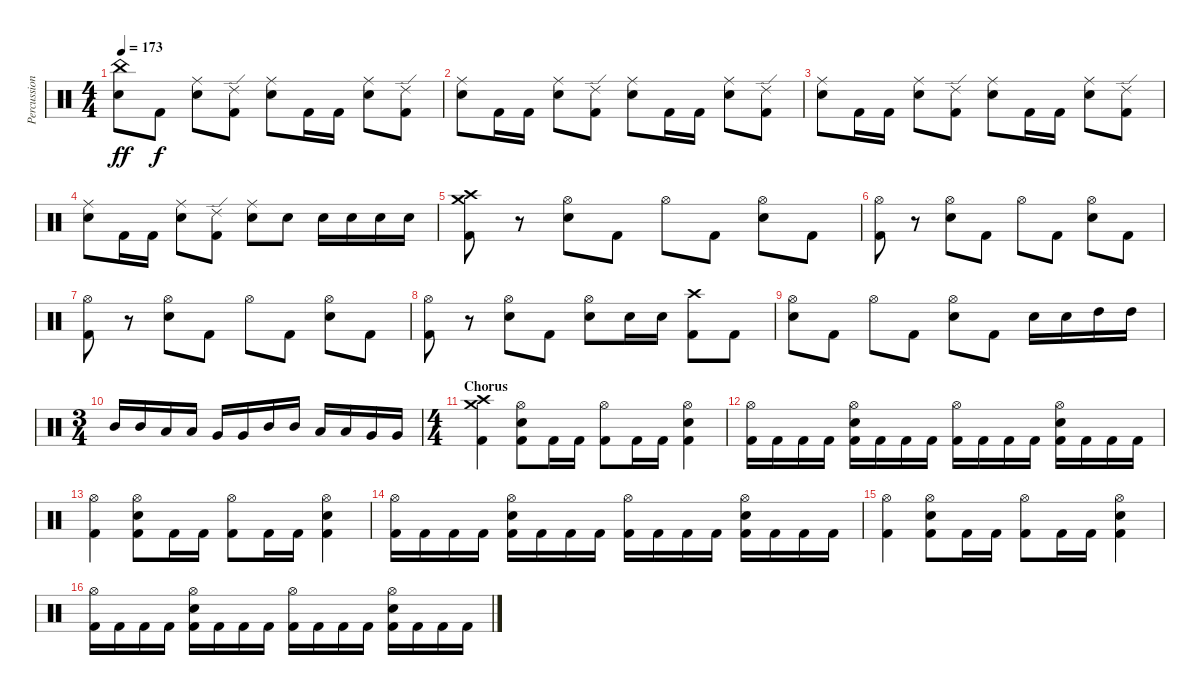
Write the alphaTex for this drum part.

\track ("Percussions" "Percussion") {instrument percussion}
\staff {score}
\articulation defaults
\ts (4 4)
\tempo 173
\clef neutral
\ks c
("China (hit)" "Electric Snare (hit)").8{dy ff} "Kick (hit) 2".8{dy f} ("Ride (middle)" "Electric Snare (hit)").8 ("Ride (edge) 2" "Kick (hit) 2").8 ("Ride (middle)" "Electric Snare (hit)").8 "Kick (hit) 2".16 "Kick (hit) 2".16 ("Ride (middle)" "Electric Snare (hit)").8 ("Ride (edge) 2" "Kick (hit) 2").8 |
("Ride (middle)" "Electric Snare (hit)").8 "Kick (hit) 2".16 "Kick (hit) 2".16 ("Ride (middle)" "Electric Snare (hit)").8 ("Ride (edge) 2" "Kick (hit) 2").8 ("Ride (middle)" "Electric Snare (hit)").8 "Kick (hit) 2".16 "Kick (hit) 2".16 ("Ride (middle)" "Electric Snare (hit)").8 ("Ride (edge) 2" "Kick (hit) 2").8 |
("Ride (middle)" "Electric Snare (hit)").8 "Kick (hit) 2".16 "Kick (hit) 2".16 ("Ride (middle)" "Electric Snare (hit)").8 ("Ride (edge) 2" "Kick (hit) 2").8 ("Ride (middle)" "Electric Snare (hit)").8 "Kick (hit) 2".16 "Kick (hit) 2".16 ("Ride (middle)" "Electric Snare (hit)").8 ("Ride (edge) 2" "Kick (hit) 2").8 |
("Ride (middle)" "Electric Snare (hit)").8 "Kick (hit) 2".16 "Kick (hit) 2".16 ("Ride (middle)" "Electric Snare (hit)").8 ("Ride (edge) 2" "Kick (hit) 2").8 ("Ride (middle)" "Electric Snare (hit)").8 "Electric Snare (hit)".8 "Electric Snare (hit)".16 "Electric Snare (hit)".16 "Electric Snare (hit)".16 "Electric Snare (hit)".16 |
("Crash high (hit)" "Crash medium (hit)" "Kick (hit) 2").8 r.8 ("Hi-Hat (open)" "Electric Snare (hit)").8 "Kick (hit) 2".8 "Hi-Hat (open)".8 "Kick (hit) 2".8 ("Hi-Hat (open)" "Electric Snare (hit)").8 "Kick (hit) 2".8 |
("Hi-Hat (open)" "Kick (hit) 2").8 r.8 ("Hi-Hat (open)" "Electric Snare (hit)").8 "Kick (hit) 2".8 "Hi-Hat (open)".8 "Kick (hit) 2".8 ("Hi-Hat (open)" "Electric Snare (hit)").8 "Kick (hit) 2".8 |
("Hi-Hat (open)" "Kick (hit) 2").8 r.8 ("Hi-Hat (open)" "Electric Snare (hit)").8 "Kick (hit) 2".8 "Hi-Hat (open)".8 "Kick (hit) 2".8 ("Hi-Hat (open)" "Electric Snare (hit)").8 "Kick (hit) 2".8 |
("Hi-Hat (open)" "Kick (hit) 2").8 r.8 ("Hi-Hat (open)" "Electric Snare (hit)").8 "Kick (hit) 2".8 ("Hi-Hat (open)" "Electric Snare (hit)").8 "Electric Snare (hit)".16 "Electric Snare (hit)".16 ("Crash high (hit)" "Kick (hit) 2").8 "Kick (hit) 2".8 |
("Hi-Hat (open)" "Electric Snare (hit)").8 "Kick (hit) 2".8 "Hi-Hat (open)".8 "Kick (hit) 2".8 ("Hi-Hat (open)" "Electric Snare (hit)").8 "Kick (hit) 2".8 "Electric Snare (hit)".16 "Electric Snare (hit)".16 "High Tom (hit)".16 "High Tom (hit)".16 |
\ts (3 4)
"Mid Tom (hit)".16 "Mid Tom (hit)".16 "Low Tom (hit)".16 "Low Tom (hit)".16 "Very Low Tom (hit)".16 "Very Low Tom (hit)".16 "Mid Tom (hit)".16 "Mid Tom (hit)".16 "Low Tom (hit)".16 "Low Tom (hit)".16 "Very Low Tom (hit)".16 "Very Low Tom (hit)".16 |
\ts (4 4)
\section ("" "Chorus")
("Crash high (hit)" "Crash medium (hit)" "Kick (hit) 2").4 ("Hi-Hat (open)" "Electric Snare (hit)" "Kick (hit) 2").8 "Kick (hit) 2".16 "Kick (hit) 2".16 ("Hi-Hat (open)" "Kick (hit) 2").8 "Kick (hit) 2".16 "Kick (hit) 2".16 ("Hi-Hat (open)" "Electric Snare (hit)" "Kick (hit) 2").4 |
("Hi-Hat (open)" "Kick (hit) 2").16 "Kick (hit) 2".16 "Kick (hit) 2".16 "Kick (hit) 2".16 ("Hi-Hat (open)" "Electric Snare (hit)" "Kick (hit) 2").16 "Kick (hit) 2".16 "Kick (hit) 2".16 "Kick (hit) 2".16 ("Hi-Hat (open)" "Kick (hit) 2").16 "Kick (hit) 2".16 "Kick (hit) 2".16 "Kick (hit) 2".16 ("Hi-Hat (open)" "Electric Snare (hit)" "Kick (hit) 2").16 "Kick (hit) 2".16 "Kick (hit) 2".16 "Kick (hit) 2".16 |
("Hi-Hat (open)" "Kick (hit) 2").4 ("Hi-Hat (open)" "Electric Snare (hit)" "Kick (hit) 2").8 "Kick (hit) 2".16 "Kick (hit) 2".16 ("Hi-Hat (open)" "Kick (hit) 2").8 "Kick (hit) 2".16 "Kick (hit) 2".16 ("Hi-Hat (open)" "Electric Snare (hit)" "Kick (hit) 2").4 |
("Hi-Hat (open)" "Kick (hit) 2").16 "Kick (hit) 2".16 "Kick (hit) 2".16 "Kick (hit) 2".16 ("Hi-Hat (open)" "Electric Snare (hit)" "Kick (hit) 2").16 "Kick (hit) 2".16 "Kick (hit) 2".16 "Kick (hit) 2".16 ("Hi-Hat (open)" "Kick (hit) 2").16 "Kick (hit) 2".16 "Kick (hit) 2".16 "Kick (hit) 2".16 ("Hi-Hat (open)" "Electric Snare (hit)" "Kick (hit) 2").16 "Kick (hit) 2".16 "Kick (hit) 2".16 "Kick (hit) 2".16 |
("Hi-Hat (open)" "Kick (hit) 2").4 ("Hi-Hat (open)" "Electric Snare (hit)" "Kick (hit) 2").8 "Kick (hit) 2".16 "Kick (hit) 2".16 ("Hi-Hat (open)" "Kick (hit) 2").8 "Kick (hit) 2".16 "Kick (hit) 2".16 ("Hi-Hat (open)" "Electric Snare (hit)" "Kick (hit) 2").4 |
("Hi-Hat (open)" "Kick (hit) 2").16 "Kick (hit) 2".16 "Kick (hit) 2".16 "Kick (hit) 2".16 ("Hi-Hat (open)" "Electric Snare (hit)" "Kick (hit) 2").16 "Kick (hit) 2".16 "Kick (hit) 2".16 "Kick (hit) 2".16 ("Hi-Hat (open)" "Kick (hit) 2").16 "Kick (hit) 2".16 "Kick (hit) 2".16 "Kick (hit) 2".16 ("Hi-Hat (open)" "Electric Snare (hit)" "Kick (hit) 2").16 "Kick (hit) 2".16 "Kick (hit) 2".16 "Kick (hit) 2".16
